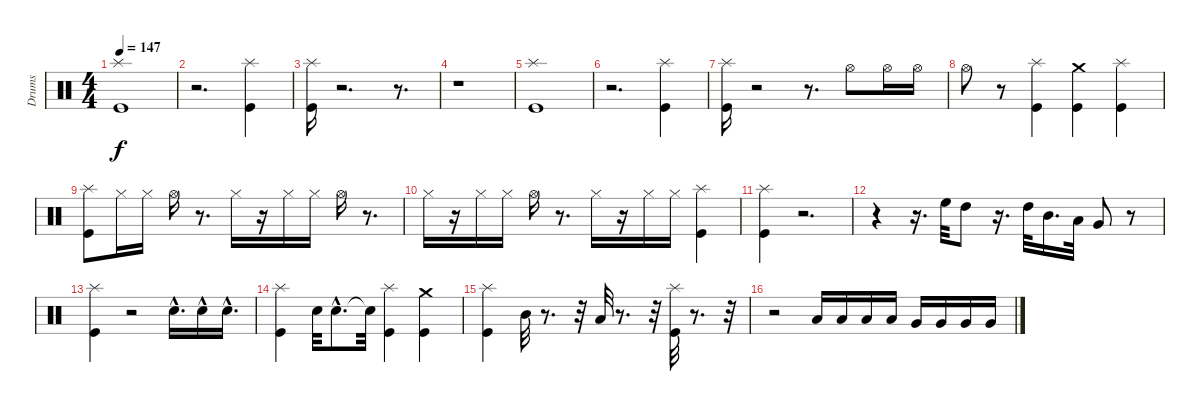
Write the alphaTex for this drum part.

\track ("Drums" "Drums") {instrument percussion}
\staff {score}
\articulation defaults
\ts (4 4)
\tempo 147
\clef neutral
\ks c
("Splash (hit)" "Kick (hit)").1{dy f} |
r.2{d} ("Splash (hit)" "Kick (hit)").4 |
("Kick (hit)" "Splash (hit)").16 r.2{d} r.8{d} |
r.1 |
("Splash (hit)" "Kick (hit)").1 |
r.2{d} ("Splash (hit)" "Kick (hit)").4 |
("Kick (hit)" "Splash (hit)").16 r.2 r.8{d} "Hi-Hat (open)".8 "Hi-Hat (open)".16 "Hi-Hat (open)".16 |
"Hi-Hat (open)".8 r.8 ("Splash (hit)" "Kick (hit)").4 ("Crash medium (hit)" "Kick (hit)").4 ("Splash (hit)" "Kick (hit)").4 |
("Splash (hit)" "Kick (hit)").8 "Hi-Hat (closed)".16 "Hi-Hat (closed)".16 "Hi-Hat (open)".16 r.8{d} "Hi-Hat (closed)".16 r.16 "Hi-Hat (closed)".16 "Hi-Hat (closed)".16 "Hi-Hat (open)".16 r.8{d} |
"Hi-Hat (closed)".16 r.16 "Hi-Hat (closed)".16 "Hi-Hat (closed)".16 "Hi-Hat (open)".16 r.8{d} "Hi-Hat (closed)".16 r.16 "Hi-Hat (closed)".16 "Hi-Hat (closed)".16 ("Kick (hit)" "Splash (hit)").4 |
("Splash (hit)" "Kick (hit)").4 r.2{d} |
r.4 r.16{d} "High Floor Tom (hit)".32 "High Tom (hit)".8 r.16{d} "High Tom (hit)".32 "Mid Tom (hit)".16{d} "Low Tom (hit)".32 "Very Low Tom (hit)".8 r.8 |
("Splash (hit)" "Kick (hit)").4 r.2 "Snare (hit) 2"{hac}.16{d} "Snare (hit) 2"{hac}.16 "Snare (hit) 2"{hac}.16{d} |
("Splash (hit)" "Kick (hit)").4 "Snare (hit) 2".32 "Snare (hit) 2"{hac}.8{d} "Snare (hit)"{t}.32 ("Kick (hit)" "Splash (hit)").4 ("Crash medium (hit)" "Kick (hit)").4 |
("Splash (hit)" "Kick (hit)").4 "Mid Tom (hit)".32 r.8{d} r.32 "Low Tom (hit)".32 r.8{d} r.32 ("Kick (hit)" "Splash (hit)").32 r.8{d} r.32 |
r.2 "Low Tom (hit)".16 "Low Tom (hit)".16 "Low Tom (hit)".16 "Low Tom (hit)".16 "Very Low Tom (hit)".16 "Very Low Tom (hit)".16 "Very Low Tom (hit)".16 "Very Low Tom (hit)".16
